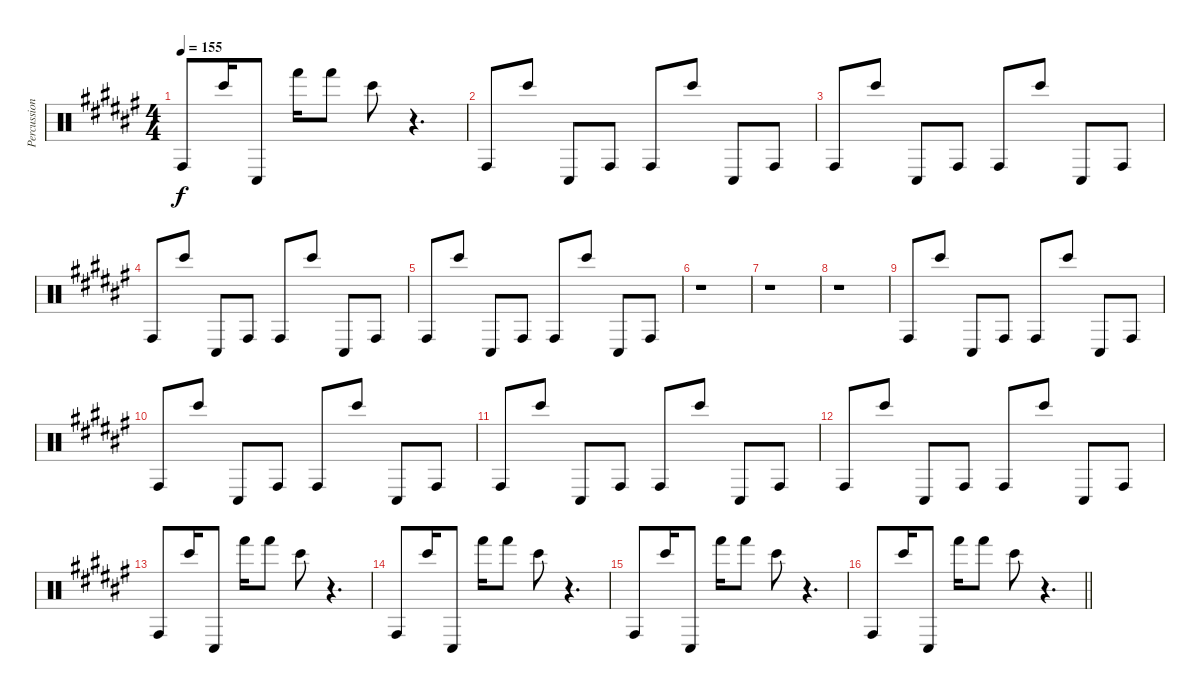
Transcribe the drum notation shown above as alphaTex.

\track ("Percussion" "Percussion") {instrument percussion}
\staff {score}
\articulation defaults
\ts (4 4)
\tempo 155
\clef neutral
\ks f# "Conga high (hit)".8{dy f} "Bongo High (hit)".16 "Conga low (hit)".8 "Hand (hit)".16 "Hand (hit)".8 "Bongo High (hit)".8
r.4{d} |
"Conga high (hit)".8 "Bongo High (hit)".8 "Conga low (hit)".8 "Conga high (hit)".8 "Conga high (hit)".8 "Bongo High (hit)".8 "Conga low (hit)".8 "Conga high (hit)".8 |
"Conga high (hit)".8 "Bongo High (hit)".8 "Conga low (hit)".8 "Conga high (hit)".8 "Conga high (hit)".8 "Bongo High (hit)".8 "Conga low (hit)".8 "Conga high (hit)".8 |
"Conga high (hit)".8 "Bongo High (hit)".8 "Conga low (hit)".8 "Conga high (hit)".8 "Conga high (hit)".8 "Bongo High (hit)".8 "Conga low (hit)".8 "Conga high (hit)".8 |
"Conga high (hit)".8 "Bongo High (hit)".8 "Conga low (hit)".8 "Conga high (hit)".8 "Conga high (hit)".8 "Bongo High (hit)".8 "Conga low (hit)".8 "Conga high (hit)".8 |
r.1 |
r.1 |
r.1 |
"Conga high (hit)".8 "Bongo High (hit)".8 "Conga low (hit)".8 "Conga high (hit)".8 "Conga high (hit)".8 "Bongo High (hit)".8 "Conga low (hit)".8 "Conga high (hit)".8 |
"Conga high (hit)".8 "Bongo High (hit)".8 "Conga low (hit)".8 "Conga high (hit)".8 "Conga high (hit)".8 "Bongo High (hit)".8 "Conga low (hit)".8 "Conga high (hit)".8 |
"Conga high (hit)".8 "Bongo High (hit)".8 "Conga low (hit)".8 "Conga high (hit)".8 "Conga high (hit)".8 "Bongo High (hit)".8 "Conga low (hit)".8 "Conga high (hit)".8 |
"Conga high (hit)".8 "Bongo High (hit)".8 "Conga low (hit)".8 "Conga high (hit)".8 "Conga high (hit)".8 "Bongo High (hit)".8 "Conga low (hit)".8 "Conga high (hit)".8 |
"Conga high (hit)".8 "Bongo High (hit)".16 "Conga low (hit)".8 "Hand (hit)".16 "Hand (hit)".8 "Bongo High (hit)".8 r.4{d} |
"Conga high (hit)".8 "Bongo High (hit)".16 "Conga low (hit)".8 "Hand (hit)".16 "Hand (hit)".8 "Bongo High (hit)".8 r.4{d} |
"Conga high (hit)".8 "Bongo High (hit)".16 "Conga low (hit)".8 "Hand (hit)".16 "Hand (hit)".8 "Bongo High (hit)".8 r.4{d} |
\barLineRight lightlight "Conga high (hit)".8 "Bongo High (hit)".16 "Conga low (hit)".8 "Hand (hit)".16 "Hand (hit)".8 "Bongo High (hit)".8
r.4{d}
